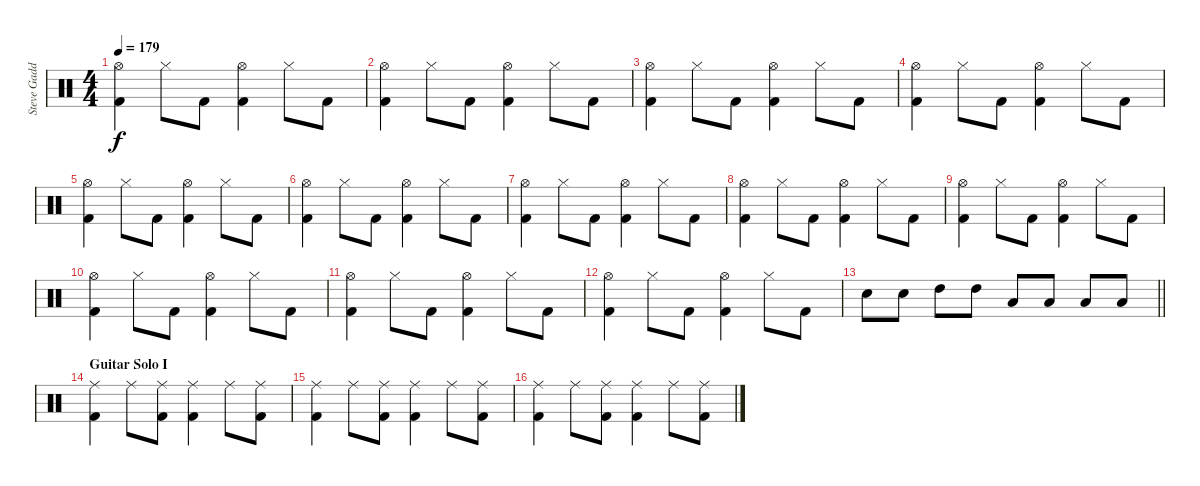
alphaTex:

\track ("Steve Gadd" "Steve Gadd") {instrument percussion}
\staff {score}
\articulation defaults
\ts (4 4)
\tempo 179
\clef neutral
\ks c
("Hi-Hat (open)" "Kick (hit) 2").4{dy f} "Hi-Hat (closed)".8 "Kick (hit) 2".8 ("Hi-Hat (open)" "Kick (hit) 2").4 "Hi-Hat (closed)".8 "Kick (hit) 2".8 |
("Hi-Hat (open)" "Kick (hit) 2").4 "Hi-Hat (closed)".8 "Kick (hit) 2".8 ("Hi-Hat (open)" "Kick (hit) 2").4 "Hi-Hat (closed)".8 "Kick (hit) 2".8 |
("Hi-Hat (open)" "Kick (hit) 2").4 "Hi-Hat (closed)".8 "Kick (hit) 2".8 ("Hi-Hat (open)" "Kick (hit) 2").4 "Hi-Hat (closed)".8 "Kick (hit) 2".8 |
("Hi-Hat (open)" "Kick (hit) 2").4 "Hi-Hat (closed)".8 "Kick (hit) 2".8 ("Hi-Hat (open)" "Kick (hit) 2").4 "Hi-Hat (closed)".8 "Kick (hit) 2".8 |
("Hi-Hat (open)" "Kick (hit) 2").4 "Hi-Hat (closed)".8 "Kick (hit) 2".8 ("Hi-Hat (open)" "Kick (hit) 2").4 "Hi-Hat (closed)".8 "Kick (hit) 2".8 |
("Hi-Hat (open)" "Kick (hit) 2").4 "Hi-Hat (closed)".8 "Kick (hit) 2".8 ("Hi-Hat (open)" "Kick (hit) 2").4 "Hi-Hat (closed)".8 "Kick (hit) 2".8 |
("Hi-Hat (open)" "Kick (hit) 2").4 "Hi-Hat (closed)".8 "Kick (hit) 2".8 ("Hi-Hat (open)" "Kick (hit) 2").4 "Hi-Hat (closed)".8 "Kick (hit) 2".8 |
("Hi-Hat (open)" "Kick (hit) 2").4 "Hi-Hat (closed)".8 "Kick (hit) 2".8 ("Hi-Hat (open)" "Kick (hit) 2").4 "Hi-Hat (closed)".8 "Kick (hit) 2".8 |
("Hi-Hat (open)" "Kick (hit) 2").4 "Hi-Hat (closed)".8 "Kick (hit) 2".8 ("Hi-Hat (open)" "Kick (hit) 2").4 "Hi-Hat (closed)".8 "Kick (hit) 2".8 |
("Hi-Hat (open)" "Kick (hit) 2").4 "Hi-Hat (closed)".8 "Kick (hit) 2".8 ("Hi-Hat (open)" "Kick (hit) 2").4 "Hi-Hat (closed)".8 "Kick (hit) 2".8 |
("Hi-Hat (open)" "Kick (hit) 2").4 "Hi-Hat (closed)".8 "Kick (hit) 2".8 ("Hi-Hat (open)" "Kick (hit) 2").4 "Hi-Hat (closed)".8 "Kick (hit) 2".8 |
("Hi-Hat (open)" "Kick (hit) 2").4 "Hi-Hat (closed)".8 "Kick (hit) 2".8 ("Hi-Hat (open)" "Kick (hit) 2").4 "Hi-Hat (closed)".8 "Kick (hit) 2".8 |
\barLineRight lightlight "Electric Snare (hit)".8 "Electric Snare (hit)".8 "High Tom (hit)".8 "High Tom (hit)".8 "Low Tom (hit)".8 "Low Tom (hit)".8 "Low Floor Tom (hit)".8 "Low Floor Tom (hit)".8
|
\section ("" "Guitar Solo I")
("Ride (middle)" "Kick (hit) 2").4 "Ride (middle)".8 ("Ride (middle)" "Kick (hit) 2").8 ("Ride (middle)" "Kick (hit) 2").4 "Ride (middle)".8 ("Ride (middle)" "Kick (hit) 2").8 |
("Ride (middle)" "Kick (hit) 2").4 "Ride (middle)".8 ("Ride (middle)" "Kick (hit) 2").8 ("Ride (middle)" "Kick (hit) 2").4 "Ride (middle)".8 ("Ride (middle)" "Kick (hit) 2").8 |
("Ride (middle)" "Kick (hit) 2").4 "Ride (middle)".8 ("Ride (middle)" "Kick (hit) 2").8 ("Ride (middle)" "Kick (hit) 2").4 "Ride (middle)".8 ("Ride (middle)" "Kick (hit) 2").8
